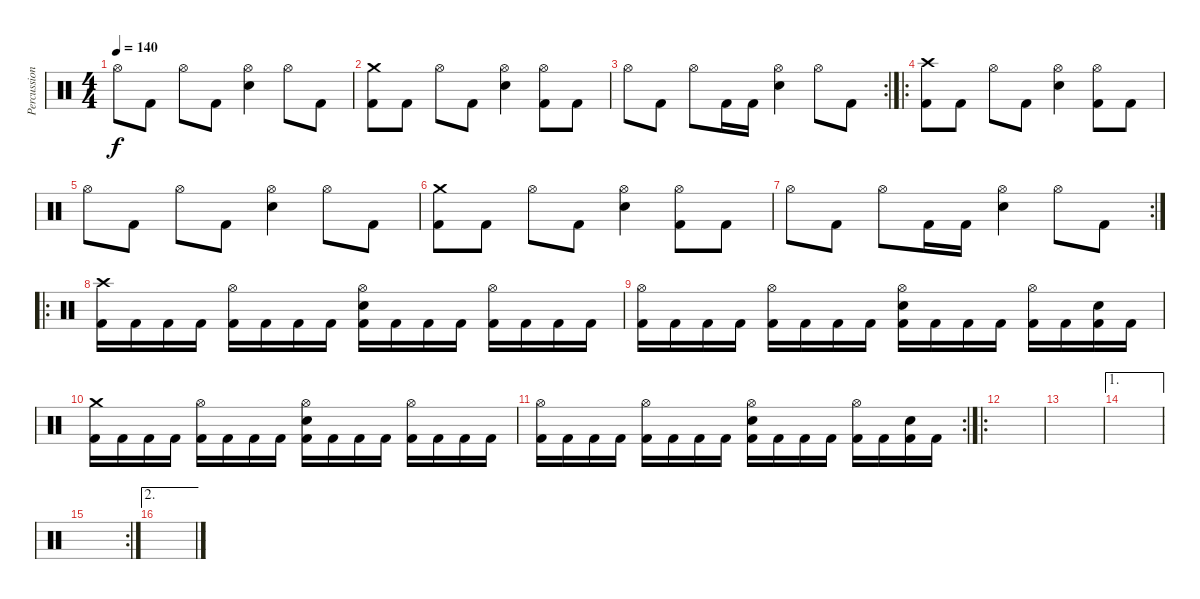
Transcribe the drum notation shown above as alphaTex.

\track ("Percussion" "Percussion") {instrument percussion}
\staff {score}
\articulation defaults
\ts (4 4)
\tempo 140
\clef neutral
\ks c "Hi-Hat (open)".8{dy f} "Kick (hit) 2".8 "Hi-Hat (open)".8 "Kick (hit) 2".8
("Hi-Hat (open)" "Electric Snare (hit)").4 "Hi-Hat (open)".8 "Kick (hit) 2".8 |
("Crash medium (hit)" "Kick (hit) 2").8 "Kick (hit) 2".8 "Hi-Hat (open)".8 "Kick (hit) 2".8 ("Hi-Hat (open)" "Electric Snare (hit)").4 ("Hi-Hat (open)" "Kick (hit) 2").8 "Kick (hit) 2".8 |
\rc 2 "Hi-Hat (open)".8 "Kick (hit) 2".8 "Hi-Hat (open)".8 "Kick (hit) 2".16 "Kick (hit) 2".16
("Hi-Hat (open)" "Electric Snare (hit)").4 "Hi-Hat (open)".8 "Kick (hit) 2".8 |
\ro
("Crash high (hit)" "Kick (hit) 2").8 "Kick (hit) 2".8 "Hi-Hat (open)".8 "Kick (hit) 2".8 ("Hi-Hat (open)" "Electric Snare (hit)").4 ("Hi-Hat (open)" "Kick (hit) 2").8 "Kick (hit) 2".8 |
"Hi-Hat (open)".8 "Kick (hit) 2".8 "Hi-Hat (open)".8 "Kick (hit) 2".8 ("Hi-Hat (open)" "Electric Snare (hit)").4 "Hi-Hat (open)".8 "Kick (hit) 2".8 |
("Crash medium (hit)" "Kick (hit) 2").8 "Kick (hit) 2".8 "Hi-Hat (open)".8 "Kick (hit) 2".8 ("Hi-Hat (open)" "Electric Snare (hit)").4 ("Hi-Hat (open)" "Kick (hit) 2").8 "Kick (hit) 2".8 |
\rc 2 "Hi-Hat (open)".8 "Kick (hit) 2".8 "Hi-Hat (open)".8 "Kick (hit) 2".16 "Kick (hit) 2".16
("Hi-Hat (open)" "Electric Snare (hit)").4 "Hi-Hat (open)".8 "Kick (hit) 2".8 |
\ro
("Crash high (hit)" "Kick (hit) 2").16 "Kick (hit) 2".16 "Kick (hit) 2".16 "Kick (hit) 2".16 ("Hi-Hat (open)" "Kick (hit) 2").16 "Kick (hit) 2".16 "Kick (hit) 2".16 "Kick (hit) 2".16 ("Hi-Hat (open)" "Electric Snare (hit)" "Kick (hit) 2").16 "Kick (hit) 2".16 "Kick (hit) 2".16 "Kick (hit) 2".16 ("Hi-Hat (open)" "Kick (hit) 2").16 "Kick (hit) 2".16 "Kick (hit) 2".16 "Kick (hit) 2".16 |
("Hi-Hat (open)" "Kick (hit) 2").16 "Kick (hit) 2".16 "Kick (hit) 2".16 "Kick (hit) 2".16 ("Hi-Hat (open)" "Kick (hit) 2").16 "Kick (hit) 2".16 "Kick (hit) 2".16 "Kick (hit) 2".16 ("Hi-Hat (open)" "Electric Snare (hit)" "Kick (hit) 2").16 "Kick (hit) 2".16 "Kick (hit) 2".16 "Kick (hit) 2".16 ("Hi-Hat (open)" "Kick (hit) 2").16 "Kick (hit) 2".16 ("Electric Snare (hit)" "Kick (hit) 2").16 "Kick (hit) 2".16 |
("Crash medium (hit)" "Kick (hit) 2").16 "Kick (hit) 2".16 "Kick (hit) 2".16 "Kick (hit) 2".16 ("Hi-Hat (open)" "Kick (hit) 2").16 "Kick (hit) 2".16 "Kick (hit) 2".16 "Kick (hit) 2".16 ("Hi-Hat (open)" "Electric Snare (hit)" "Kick (hit) 2").16 "Kick (hit) 2".16 "Kick (hit) 2".16 "Kick (hit) 2".16 ("Hi-Hat (open)" "Kick (hit) 2").16 "Kick (hit) 2".16 "Kick (hit) 2".16 "Kick (hit) 2".16 |
\rc 2
("Hi-Hat (open)" "Kick (hit) 2").16 "Kick (hit) 2".16 "Kick (hit) 2".16 "Kick (hit) 2".16 ("Hi-Hat (open)" "Kick (hit) 2").16 "Kick (hit) 2".16 "Kick (hit) 2".16 "Kick (hit) 2".16 ("Hi-Hat (open)" "Electric Snare (hit)" "Kick (hit) 2").16 "Kick (hit) 2".16 "Kick (hit) 2".16 "Kick (hit) 2".16 ("Hi-Hat (open)" "Kick (hit) 2").16 "Kick (hit) 2".16 ("Electric Snare (hit)" "Kick (hit) 2").16 "Kick (hit) 2".16 |
\ro
|
|
\ae 1
|
\rc 2
|
\ae 2
